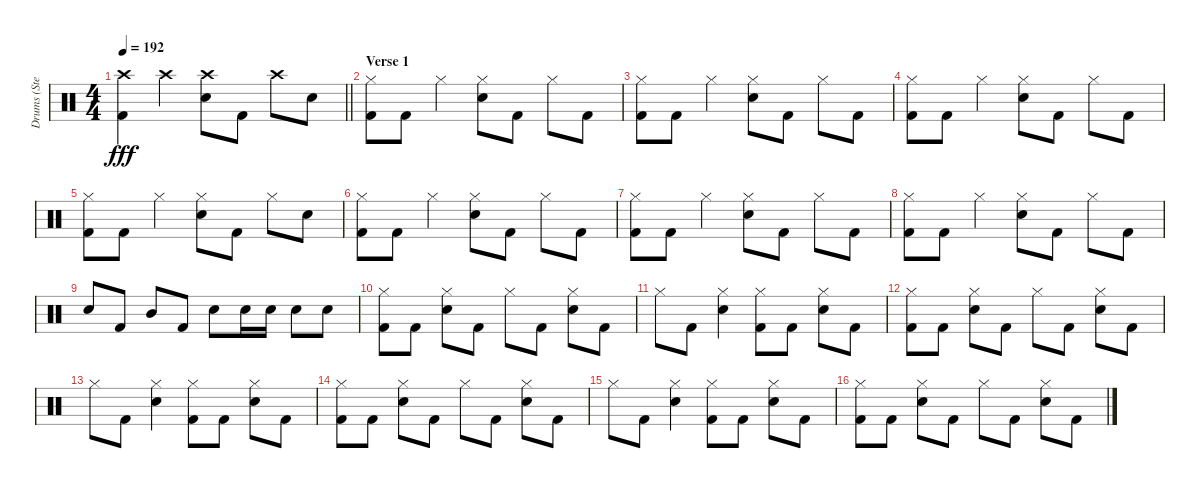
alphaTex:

\track ("Drums (Stevo32)" "Drums (Ste") {instrument percussion}
\staff {score}
\articulation defaults
\ts (4 4)
\tempo 192
\clef neutral
\barLineRight lightlight
\ks c
("Crash high (hit)" "Kick (hit) 2").4{dy fff} "Crash high (hit)".4 ("Crash high (hit)" "Electric Snare (hit)").8 "Kick (hit) 2".8 "Crash high (hit)".8 "Electric Snare (hit)".8 |
\section ("" "Verse 1")
("Hi-Hat (closed)" "Kick (hit) 2").8 "Kick (hit) 2".8 "Hi-Hat (closed)".4 ("Hi-Hat (closed)" "Electric Snare (hit)").8 "Kick (hit) 2".8 "Hi-Hat (closed)".8 "Kick (hit) 2".8 |
("Hi-Hat (closed)" "Kick (hit) 2").8 "Kick (hit) 2".8 "Hi-Hat (closed)".4 ("Hi-Hat (closed)" "Electric Snare (hit)").8 "Kick (hit) 2".8 "Hi-Hat (closed)".8 "Kick (hit) 2".8 |
("Hi-Hat (closed)" "Kick (hit) 2").8 "Kick (hit) 2".8 "Hi-Hat (closed)".4 ("Hi-Hat (closed)" "Electric Snare (hit)").8 "Kick (hit) 2".8 "Hi-Hat (closed)".8 "Kick (hit) 2".8 |
("Hi-Hat (closed)" "Kick (hit) 2").8 "Kick (hit) 2".8 "Hi-Hat (closed)".4 ("Hi-Hat (closed)" "Electric Snare (hit)").8 "Kick (hit) 2".8 "Hi-Hat (closed)".8 "Electric Snare (hit)".8 |
("Hi-Hat (closed)" "Kick (hit) 2").8 "Kick (hit) 2".8 "Hi-Hat (closed)".4 ("Hi-Hat (closed)" "Electric Snare (hit)").8 "Kick (hit) 2".8 "Hi-Hat (closed)".8 "Kick (hit) 2".8 |
("Hi-Hat (closed)" "Kick (hit) 2").8 "Kick (hit) 2".8 "Hi-Hat (closed)".4 ("Hi-Hat (closed)" "Electric Snare (hit)").8 "Kick (hit) 2".8 "Hi-Hat (closed)".8 "Kick (hit) 2".8 |
("Hi-Hat (closed)" "Kick (hit) 2").8 "Kick (hit) 2".8 "Hi-Hat (closed)".4 ("Hi-Hat (closed)" "Electric Snare (hit)").8 "Kick (hit) 2".8 "Hi-Hat (closed)".8 "Kick (hit) 2".8 |
"Electric Snare (hit)".8 "Kick (hit) 2".8 "Mid Tom (hit)".8 "Kick (hit) 2".8 "Electric Snare (hit)".8 "Electric Snare (hit)".16 "Electric Snare (hit)".16 "Electric Snare (hit)".8 "Electric Snare (hit)".8 |
("Hi-Hat (closed)" "Kick (hit) 2").8 "Kick (hit) 2".8 ("Hi-Hat (closed)" "Electric Snare (hit)").8 "Kick (hit) 2".8 "Hi-Hat (closed)".8 "Kick (hit) 2".8 ("Hi-Hat (closed)" "Electric Snare (hit)").8 "Kick (hit) 2".8 |
"Hi-Hat (closed)".8 "Kick (hit) 2".8 ("Hi-Hat (closed)" "Electric Snare (hit)").4 ("Hi-Hat (closed)" "Kick (hit) 2").8 "Kick (hit) 2".8 ("Hi-Hat (closed)" "Electric Snare (hit)").8 "Kick (hit) 2".8 |
("Hi-Hat (closed)" "Kick (hit) 2").8 "Kick (hit) 2".8 ("Hi-Hat (closed)" "Electric Snare (hit)").8 "Kick (hit) 2".8 "Hi-Hat (closed)".8 "Kick (hit) 2".8 ("Hi-Hat (closed)" "Electric Snare (hit)").8 "Kick (hit) 2".8 |
"Hi-Hat (closed)".8 "Kick (hit) 2".8 ("Hi-Hat (closed)" "Electric Snare (hit)").4 ("Hi-Hat (closed)" "Kick (hit) 2").8 "Kick (hit) 2".8 ("Hi-Hat (closed)" "Electric Snare (hit)").8 "Kick (hit) 2".8 |
("Hi-Hat (closed)" "Kick (hit) 2").8 "Kick (hit) 2".8 ("Hi-Hat (closed)" "Electric Snare (hit)").8 "Kick (hit) 2".8 "Hi-Hat (closed)".8 "Kick (hit) 2".8 ("Hi-Hat (closed)" "Electric Snare (hit)").8 "Kick (hit) 2".8 |
"Hi-Hat (closed)".8 "Kick (hit) 2".8 ("Hi-Hat (closed)" "Electric Snare (hit)").4 ("Hi-Hat (closed)" "Kick (hit) 2").8 "Kick (hit) 2".8 ("Hi-Hat (closed)" "Electric Snare (hit)").8 "Kick (hit) 2".8 |
("Hi-Hat (closed)" "Kick (hit) 2").8 "Kick (hit) 2".8 ("Hi-Hat (closed)" "Electric Snare (hit)").8 "Kick (hit) 2".8 "Hi-Hat (closed)".8 "Kick (hit) 2".8 ("Hi-Hat (closed)" "Electric Snare (hit)").8 "Kick (hit) 2".8
